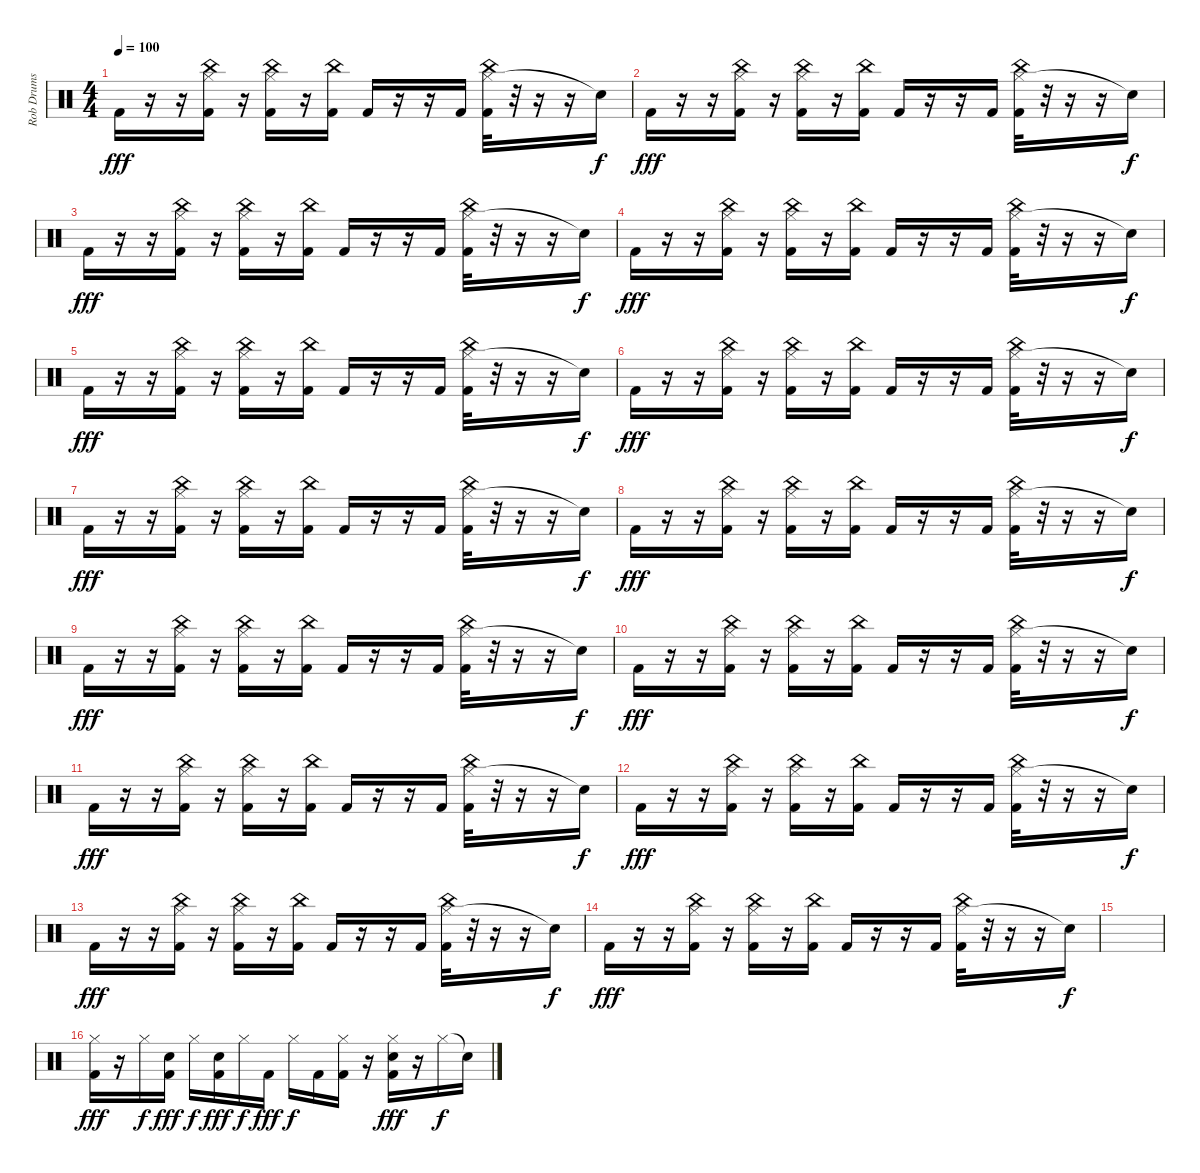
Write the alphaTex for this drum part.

\track ("Rob Drums" "Rob Drums") {instrument percussion}
\staff {score}
\articulation defaults
\ts (4 4)
\tempo 100
\clef neutral
\ks c "Kick (hit) 2".16{dy fff}
r.16 r.16 ("Hi-Hat (closed)" "China (hit)" "Kick (hit) 2").16 r.16 ("Hi-Hat (closed)" "China (hit)" "Kick (hit) 2").16 r.16 ("China (hit)" "Kick (hit) 2").16 "Kick (hit) 2".16 r.16 r.16 "Kick (hit) 2".16 ("Hi-Hat (closed)" "China (hit)" "Kick (hit) 2").32 r.32 r.16 r.16 "Snare (hit)"{t}.16{dy f} |
"Kick (hit) 2".16{dy fff} r.16 r.16 ("Hi-Hat (closed)" "China (hit)" "Kick (hit) 2").16 r.16 ("Hi-Hat (closed)" "China (hit)" "Kick (hit) 2").16 r.16 ("China (hit)" "Kick (hit) 2").16 "Kick (hit) 2".16 r.16 r.16 "Kick (hit) 2".16 ("Hi-Hat (closed)" "China (hit)" "Kick (hit) 2").32 r.32 r.16 r.16 "Snare (hit)"{t}.16{dy f} |
"Kick (hit) 2".16{dy fff} r.16 r.16 ("Hi-Hat (closed)" "China (hit)" "Kick (hit) 2").16 r.16 ("Hi-Hat (closed)" "China (hit)" "Kick (hit) 2").16 r.16 ("China (hit)" "Kick (hit) 2").16 "Kick (hit) 2".16 r.16 r.16 "Kick (hit) 2".16 ("Hi-Hat (closed)" "China (hit)" "Kick (hit) 2").32 r.32 r.16 r.16 "Snare (hit)"{t}.16{dy f} |
"Kick (hit) 2".16{dy fff} r.16 r.16 ("Hi-Hat (closed)" "China (hit)" "Kick (hit) 2").16 r.16 ("Hi-Hat (closed)" "China (hit)" "Kick (hit) 2").16 r.16 ("China (hit)" "Kick (hit) 2").16 "Kick (hit) 2".16 r.16 r.16 "Kick (hit) 2".16 ("Hi-Hat (closed)" "China (hit)" "Kick (hit) 2").32 r.32 r.16 r.16 "Snare (hit)"{t}.16{dy f} |
"Kick (hit) 2".16{dy fff} r.16 r.16 ("Hi-Hat (closed)" "China (hit)" "Kick (hit) 2").16 r.16 ("Hi-Hat (closed)" "China (hit)" "Kick (hit) 2").16 r.16 ("China (hit)" "Kick (hit) 2").16 "Kick (hit) 2".16 r.16 r.16 "Kick (hit) 2".16 ("Hi-Hat (closed)" "China (hit)" "Kick (hit) 2").32 r.32 r.16 r.16 "Snare (hit)"{t}.16{dy f} |
"Kick (hit) 2".16{dy fff} r.16 r.16 ("Hi-Hat (closed)" "China (hit)" "Kick (hit) 2").16 r.16 ("Hi-Hat (closed)" "China (hit)" "Kick (hit) 2").16 r.16 ("China (hit)" "Kick (hit) 2").16 "Kick (hit) 2".16 r.16 r.16 "Kick (hit) 2".16 ("Hi-Hat (closed)" "China (hit)" "Kick (hit) 2").32 r.32 r.16 r.16 "Snare (hit)"{t}.16{dy f} |
"Kick (hit) 2".16{dy fff} r.16 r.16 ("Hi-Hat (closed)" "China (hit)" "Kick (hit) 2").16 r.16 ("Hi-Hat (closed)" "China (hit)" "Kick (hit) 2").16 r.16 ("China (hit)" "Kick (hit) 2").16 "Kick (hit) 2".16 r.16 r.16 "Kick (hit) 2".16 ("Hi-Hat (closed)" "China (hit)" "Kick (hit) 2").32 r.32 r.16 r.16 "Snare (hit)"{t}.16{dy f} |
"Kick (hit) 2".16{dy fff} r.16 r.16 ("Hi-Hat (closed)" "China (hit)" "Kick (hit) 2").16 r.16 ("Hi-Hat (closed)" "China (hit)" "Kick (hit) 2").16 r.16 ("China (hit)" "Kick (hit) 2").16 "Kick (hit) 2".16 r.16 r.16 "Kick (hit) 2".16 ("Hi-Hat (closed)" "China (hit)" "Kick (hit) 2").32 r.32 r.16 r.16 "Snare (hit)"{t}.16{dy f} |
"Kick (hit) 2".16{dy fff} r.16 r.16 ("Hi-Hat (closed)" "China (hit)" "Kick (hit) 2").16 r.16 ("Hi-Hat (closed)" "China (hit)" "Kick (hit) 2").16 r.16 ("China (hit)" "Kick (hit) 2").16 "Kick (hit) 2".16 r.16 r.16 "Kick (hit) 2".16 ("Hi-Hat (closed)" "China (hit)" "Kick (hit) 2").32 r.32 r.16 r.16 "Snare (hit)"{t}.16{dy f} |
"Kick (hit) 2".16{dy fff} r.16 r.16 ("Hi-Hat (closed)" "China (hit)" "Kick (hit) 2").16 r.16 ("Hi-Hat (closed)" "China (hit)" "Kick (hit) 2").16 r.16 ("China (hit)" "Kick (hit) 2").16 "Kick (hit) 2".16 r.16 r.16 "Kick (hit) 2".16 ("Hi-Hat (closed)" "China (hit)" "Kick (hit) 2").32 r.32 r.16 r.16 "Snare (hit)"{t}.16{dy f} |
"Kick (hit) 2".16{dy fff} r.16 r.16 ("Hi-Hat (closed)" "China (hit)" "Kick (hit) 2").16 r.16 ("Hi-Hat (closed)" "China (hit)" "Kick (hit) 2").16 r.16 ("China (hit)" "Kick (hit) 2").16 "Kick (hit) 2".16 r.16 r.16 "Kick (hit) 2".16 ("Hi-Hat (closed)" "China (hit)" "Kick (hit) 2").32 r.32 r.16 r.16 "Snare (hit)"{t}.16{dy f} |
"Kick (hit) 2".16{dy fff} r.16 r.16 ("Hi-Hat (closed)" "China (hit)" "Kick (hit) 2").16 r.16 ("Hi-Hat (closed)" "China (hit)" "Kick (hit) 2").16 r.16 ("China (hit)" "Kick (hit) 2").16 "Kick (hit) 2".16 r.16 r.16 "Kick (hit) 2".16 ("Hi-Hat (closed)" "China (hit)" "Kick (hit) 2").32 r.32 r.16 r.16 "Snare (hit)"{t}.16{dy f} |
"Kick (hit) 2".16{dy fff} r.16 r.16 ("Hi-Hat (closed)" "China (hit)" "Kick (hit) 2").16 r.16 ("Hi-Hat (closed)" "China (hit)" "Kick (hit) 2").16 r.16 ("China (hit)" "Kick (hit) 2").16 "Kick (hit) 2".16 r.16 r.16 "Kick (hit) 2".16 ("Hi-Hat (closed)" "China (hit)" "Kick (hit) 2").32 r.32 r.16 r.16 "Snare (hit)"{t}.16{dy f} |
"Kick (hit) 2".16{dy fff} r.16 r.16 ("Hi-Hat (closed)" "China (hit)" "Kick (hit) 2").16 r.16 ("Hi-Hat (closed)" "China (hit)" "Kick (hit) 2").16 r.16 ("China (hit)" "Kick (hit) 2").16 "Kick (hit) 2".16 r.16 r.16 "Kick (hit) 2".16 ("Hi-Hat (closed)" "China (hit)" "Kick (hit) 2").32 r.32 r.16 r.16 "Snare (hit)"{t}.16{dy f} |
|
("Hi-Hat (closed)" "Kick (hit) 2").16{dy fff volume 16} r.16 "Hi-Hat (closed)".16{dy f} ("Snare (hit) 2" "Kick (hit) 2").16{dy fff} "Hi-Hat (closed)".16{dy f} ("Snare (hit) 2" "Kick (hit) 2").16{dy fff} "Hi-Hat (closed)".16{dy f} "Kick (hit) 2".16{dy fff} "Hi-Hat (closed)".16{dy f} "Kick (hit) 2".16 ("Hi-Hat (closed)" "Kick (hit) 2").16 r.16 ("Hi-Hat (closed)" "Snare (hit) 2" "Kick (hit) 2").16{dy fff} r.16 "Hi-Hat (closed)".16{dy f} "Snare (hit)"{t}.16
